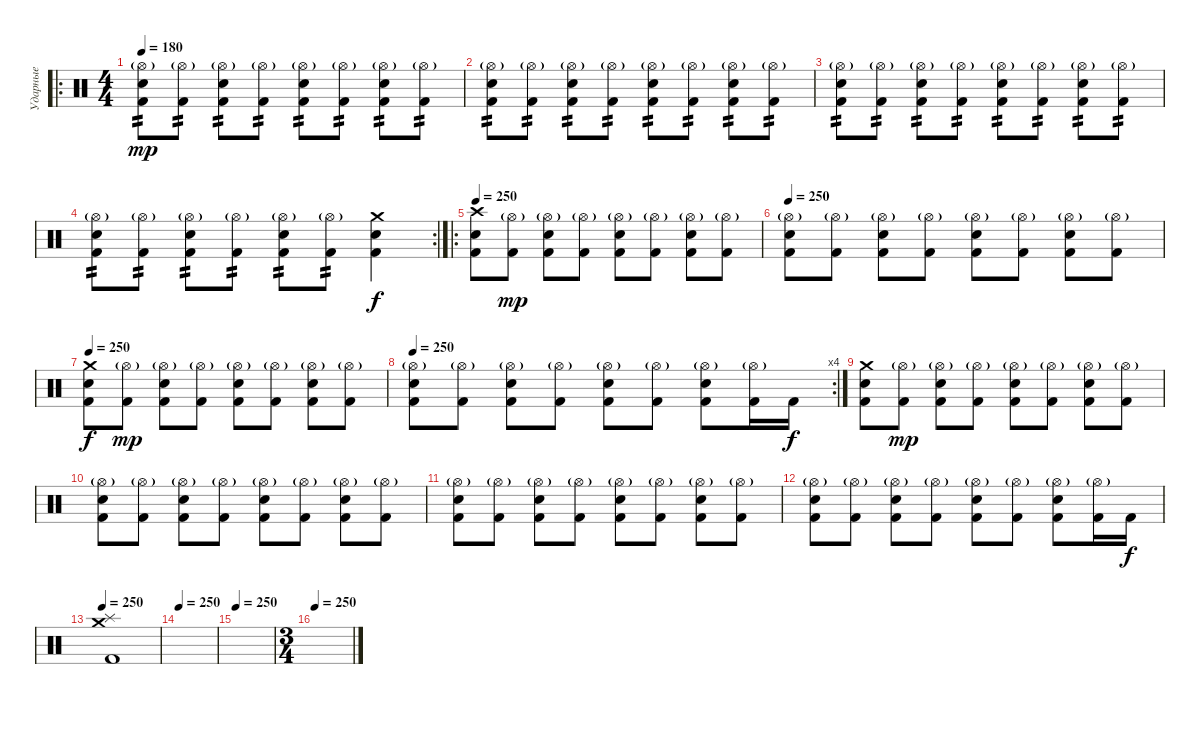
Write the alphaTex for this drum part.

\track ("Ударные" "Ударные") {instrument percussion}
\staff {score}
\articulation defaults
\ro
\ts (4 4)
\tempo 180
\clef neutral
\ks c
("Electric Snare (hit)" "Hi-Hat (open)"{g} "Kick (hit) 2").8{tp 2 dy mp} ("Hi-Hat (open)"{g} "Kick (hit) 2").8{tp 2} ("Electric Snare (hit)" "Hi-Hat (open)"{g} "Kick (hit) 2").8{tp 2} ("Hi-Hat (open)"{g} "Kick (hit) 2").8{tp 2} ("Electric Snare (hit)" "Hi-Hat (open)"{g} "Kick (hit) 2").8{tp 2} ("Hi-Hat (open)"{g} "Kick (hit) 2").8{tp 2} ("Electric Snare (hit)" "Hi-Hat (open)"{g} "Kick (hit) 2").8{tp 2} ("Hi-Hat (open)"{g} "Kick (hit) 2").8{tp 2} |
("Electric Snare (hit)" "Hi-Hat (open)"{g} "Kick (hit) 2").8{tp 2} ("Hi-Hat (open)"{g} "Kick (hit) 2").8{tp 2} ("Electric Snare (hit)" "Hi-Hat (open)"{g} "Kick (hit) 2").8{tp 2} ("Hi-Hat (open)"{g} "Kick (hit) 2").8{tp 2} ("Electric Snare (hit)" "Hi-Hat (open)"{g} "Kick (hit) 2").8{tp 2} ("Hi-Hat (open)"{g} "Kick (hit) 2").8{tp 2} ("Electric Snare (hit)" "Hi-Hat (open)"{g} "Kick (hit) 2").8{tp 2} ("Hi-Hat (open)"{g} "Kick (hit) 2").8{tp 2} |
("Electric Snare (hit)" "Hi-Hat (open)"{g} "Kick (hit) 2").8{tp 2} ("Hi-Hat (open)"{g} "Kick (hit) 2").8{tp 2} ("Electric Snare (hit)" "Hi-Hat (open)"{g} "Kick (hit) 2").8{tp 2} ("Hi-Hat (open)"{g} "Kick (hit) 2").8{tp 2} ("Electric Snare (hit)" "Hi-Hat (open)"{g} "Kick (hit) 2").8{tp 2} ("Hi-Hat (open)"{g} "Kick (hit) 2").8{tp 2} ("Electric Snare (hit)" "Hi-Hat (open)"{g} "Kick (hit) 2").8{tp 2} ("Hi-Hat (open)"{g} "Kick (hit) 2").8{tp 2} |
\rc 2
("Electric Snare (hit)" "Hi-Hat (open)"{g} "Kick (hit) 2").8{tp 2} ("Hi-Hat (open)"{g} "Kick (hit) 2").8{tp 2} ("Electric Snare (hit)" "Hi-Hat (open)"{g} "Kick (hit) 2").8{tp 2} ("Hi-Hat (open)"{g} "Kick (hit) 2").8{tp 2} ("Electric Snare (hit)" "Hi-Hat (open)"{g} "Kick (hit) 2").8{tp 2} ("Hi-Hat (open)"{g} "Kick (hit) 2").8{tp 2} ("Electric Snare (hit)" "Crash medium (hit)" "Kick (hit) 2").4{dy f} |
\ro
\tempo 250
("Electric Snare (hit)" "Crash high (hit)" "Kick (hit) 2").8 ("Hi-Hat (open)"{g} "Kick (hit) 2").8{dy mp} ("Electric Snare (hit)" "Hi-Hat (open)"{g} "Kick (hit) 2").8 ("Hi-Hat (open)"{g} "Kick (hit) 2").8 ("Electric Snare (hit)" "Hi-Hat (open)"{g} "Kick (hit) 2").8 ("Hi-Hat (open)"{g} "Kick (hit) 2").8 ("Electric Snare (hit)" "Hi-Hat (open)"{g} "Kick (hit) 2").8 ("Hi-Hat (open)"{g} "Kick (hit) 2").8 |
\tempo 250
("Electric Snare (hit)" "Hi-Hat (open)"{g} "Kick (hit) 2").8 ("Hi-Hat (open)"{g} "Kick (hit) 2").8 ("Electric Snare (hit)" "Hi-Hat (open)"{g} "Kick (hit) 2").8 ("Hi-Hat (open)"{g} "Kick (hit) 2").8 ("Electric Snare (hit)" "Hi-Hat (open)"{g} "Kick (hit) 2").8 ("Hi-Hat (open)"{g} "Kick (hit) 2").8 ("Electric Snare (hit)" "Hi-Hat (open)"{g} "Kick (hit) 2").8 ("Hi-Hat (open)"{g} "Kick (hit) 2").8 |
\tempo 250
("Electric Snare (hit)" "Crash medium (hit)" "Kick (hit) 2").8{dy f} ("Hi-Hat (open)"{g} "Kick (hit) 2").8{dy mp} ("Electric Snare (hit)" "Hi-Hat (open)"{g} "Kick (hit) 2").8 ("Hi-Hat (open)"{g} "Kick (hit) 2").8 ("Electric Snare (hit)" "Hi-Hat (open)"{g} "Kick (hit) 2").8 ("Hi-Hat (open)"{g} "Kick (hit) 2").8 ("Electric Snare (hit)" "Hi-Hat (open)"{g} "Kick (hit) 2").8 ("Hi-Hat (open)"{g} "Kick (hit) 2").8 |
\rc 4
\tempo 250
("Electric Snare (hit)" "Hi-Hat (open)"{g} "Kick (hit) 2").8 ("Hi-Hat (open)"{g} "Kick (hit) 2").8 ("Electric Snare (hit)" "Hi-Hat (open)"{g} "Kick (hit) 2").8 ("Hi-Hat (open)"{g} "Kick (hit) 2").8 ("Electric Snare (hit)" "Hi-Hat (open)"{g} "Kick (hit) 2").8 ("Hi-Hat (open)"{g} "Kick (hit) 2").8 ("Electric Snare (hit)" "Hi-Hat (open)"{g} "Kick (hit) 2").8 ("Hi-Hat (open)"{g} "Kick (hit) 2").16 "Kick (hit) 2".16{dy f} |
("Electric Snare (hit)" "Crash medium (hit)" "Kick (hit) 2").8 ("Hi-Hat (open)"{g} "Kick (hit) 2").8{dy mp} ("Electric Snare (hit)" "Hi-Hat (open)"{g} "Kick (hit) 2").8 ("Hi-Hat (open)"{g} "Kick (hit) 2").8 ("Electric Snare (hit)" "Hi-Hat (open)"{g} "Kick (hit) 2").8 ("Hi-Hat (open)"{g} "Kick (hit) 2").8 ("Electric Snare (hit)" "Hi-Hat (open)"{g} "Kick (hit) 2").8 ("Hi-Hat (open)"{g} "Kick (hit) 2").8 |
("Electric Snare (hit)" "Hi-Hat (open)"{g} "Kick (hit) 2").8 ("Hi-Hat (open)"{g} "Kick (hit) 2").8 ("Electric Snare (hit)" "Hi-Hat (open)"{g} "Kick (hit) 2").8 ("Hi-Hat (open)"{g} "Kick (hit) 2").8 ("Electric Snare (hit)" "Hi-Hat (open)"{g} "Kick (hit) 2").8 ("Hi-Hat (open)"{g} "Kick (hit) 2").8 ("Electric Snare (hit)" "Hi-Hat (open)"{g} "Kick (hit) 2").8 ("Hi-Hat (open)"{g} "Kick (hit) 2").8 |
("Electric Snare (hit)" "Hi-Hat (open)"{g} "Kick (hit) 2").8 ("Hi-Hat (open)"{g} "Kick (hit) 2").8 ("Electric Snare (hit)" "Hi-Hat (open)"{g} "Kick (hit) 2").8 ("Hi-Hat (open)"{g} "Kick (hit) 2").8 ("Electric Snare (hit)" "Hi-Hat (open)"{g} "Kick (hit) 2").8 ("Hi-Hat (open)"{g} "Kick (hit) 2").8 ("Electric Snare (hit)" "Hi-Hat (open)"{g} "Kick (hit) 2").8 ("Hi-Hat (open)"{g} "Kick (hit) 2").8 |
("Electric Snare (hit)" "Hi-Hat (open)"{g} "Kick (hit) 2").8 ("Hi-Hat (open)"{g} "Kick (hit) 2").8 ("Electric Snare (hit)" "Hi-Hat (open)"{g} "Kick (hit) 2").8 ("Hi-Hat (open)"{g} "Kick (hit) 2").8 ("Electric Snare (hit)" "Hi-Hat (open)"{g} "Kick (hit) 2").8 ("Hi-Hat (open)"{g} "Kick (hit) 2").8 ("Electric Snare (hit)" "Hi-Hat (open)"{g} "Kick (hit) 2").8 ("Hi-Hat (open)"{g} "Kick (hit) 2").16 "Kick (hit) 2".16{dy f} |
\tempo 250
("Splash (hit)" "Crash medium (hit)" "Kick (hit) 2").1 |
\tempo 250
|
\tempo 250
|
\ts (3 4)
\tempo 250
